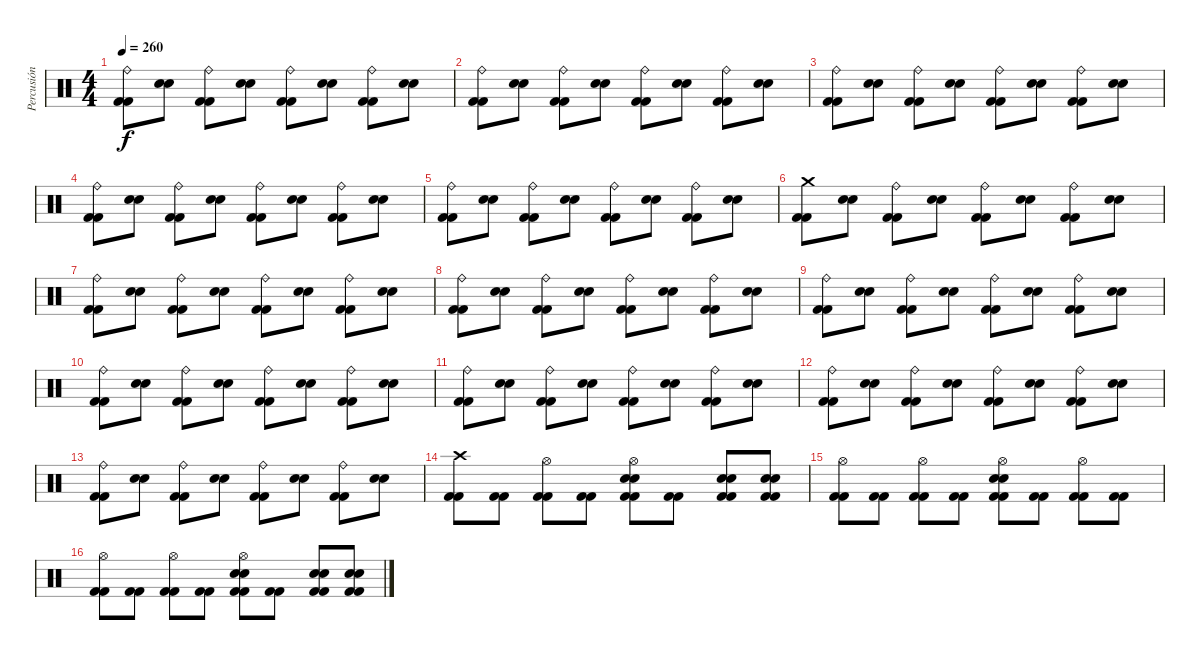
\track ("Percusión" "Percusión") {instrument percussion}
\staff {score}
\articulation defaults
\ts (4 4)
\tempo 260
\clef neutral
\ks c
("Kick (hit) 2" "Kick (hit) 2" "Ride (bell)").8{dy f} ("Electric Snare (hit)" "Electric Snare (hit)").8 ("Kick (hit) 2" "Kick (hit) 2" "Ride (bell)").8 ("Electric Snare (hit)" "Electric Snare (hit)").8 ("Kick (hit) 2" "Kick (hit) 2" "Ride (bell)").8 ("Electric Snare (hit)" "Electric Snare (hit)").8 ("Kick (hit) 2" "Kick (hit) 2" "Ride (bell)").8 ("Electric Snare (hit)" "Electric Snare (hit)").8 |
("Kick (hit) 2" "Kick (hit) 2" "Ride (bell)").8 ("Electric Snare (hit)" "Electric Snare (hit)").8 ("Kick (hit) 2" "Kick (hit) 2" "Ride (bell)").8 ("Electric Snare (hit)" "Electric Snare (hit)").8 ("Kick (hit) 2" "Kick (hit) 2" "Ride (bell)").8 ("Electric Snare (hit)" "Electric Snare (hit)").8 ("Kick (hit) 2" "Kick (hit) 2" "Ride (bell)").8 ("Electric Snare (hit)" "Electric Snare (hit)").8 |
("Kick (hit) 2" "Kick (hit) 2" "Ride (bell)").8 ("Electric Snare (hit)" "Electric Snare (hit)").8 ("Kick (hit) 2" "Kick (hit) 2" "Ride (bell)").8 ("Electric Snare (hit)" "Electric Snare (hit)").8 ("Kick (hit) 2" "Kick (hit) 2" "Ride (bell)").8 ("Electric Snare (hit)" "Electric Snare (hit)").8 ("Kick (hit) 2" "Kick (hit) 2" "Ride (bell)").8 ("Electric Snare (hit)" "Electric Snare (hit)").8 |
("Kick (hit) 2" "Kick (hit) 2" "Ride (bell)").8 ("Electric Snare (hit)" "Electric Snare (hit)").8 ("Kick (hit) 2" "Kick (hit) 2" "Ride (bell)").8 ("Electric Snare (hit)" "Electric Snare (hit)").8 ("Kick (hit) 2" "Kick (hit) 2" "Ride (bell)").8 ("Electric Snare (hit)" "Electric Snare (hit)").8 ("Kick (hit) 2" "Kick (hit) 2" "Ride (bell)").8 ("Electric Snare (hit)" "Electric Snare (hit)").8 |
("Kick (hit) 2" "Kick (hit) 2" "Ride (bell)").8 ("Electric Snare (hit)" "Electric Snare (hit)").8 ("Kick (hit) 2" "Kick (hit) 2" "Ride (bell)").8 ("Electric Snare (hit)" "Electric Snare (hit)").8 ("Kick (hit) 2" "Kick (hit) 2" "Ride (bell)").8 ("Electric Snare (hit)" "Electric Snare (hit)").8 ("Kick (hit) 2" "Kick (hit) 2" "Ride (bell)").8 ("Electric Snare (hit)" "Electric Snare (hit)").8 |
("Kick (hit) 2" "Kick (hit) 2" "Crash medium (hit)").8 ("Electric Snare (hit)" "Electric Snare (hit)").8 ("Kick (hit) 2" "Kick (hit) 2" "Ride (bell)").8 ("Electric Snare (hit)" "Electric Snare (hit)").8 ("Kick (hit) 2" "Kick (hit) 2" "Ride (bell)").8 ("Electric Snare (hit)" "Electric Snare (hit)").8 ("Kick (hit) 2" "Kick (hit) 2" "Ride (bell)").8 ("Electric Snare (hit)" "Electric Snare (hit)").8 |
("Kick (hit) 2" "Kick (hit) 2" "Ride (bell)").8 ("Electric Snare (hit)" "Electric Snare (hit)").8 ("Kick (hit) 2" "Kick (hit) 2" "Ride (bell)").8 ("Electric Snare (hit)" "Electric Snare (hit)").8 ("Kick (hit) 2" "Kick (hit) 2" "Ride (bell)").8 ("Electric Snare (hit)" "Electric Snare (hit)").8 ("Kick (hit) 2" "Kick (hit) 2" "Ride (bell)").8 ("Electric Snare (hit)" "Electric Snare (hit)").8 |
("Kick (hit) 2" "Kick (hit) 2" "Ride (bell)").8 ("Electric Snare (hit)" "Electric Snare (hit)").8 ("Kick (hit) 2" "Kick (hit) 2" "Ride (bell)").8 ("Electric Snare (hit)" "Electric Snare (hit)").8 ("Kick (hit) 2" "Kick (hit) 2" "Ride (bell)").8 ("Electric Snare (hit)" "Electric Snare (hit)").8 ("Kick (hit) 2" "Kick (hit) 2" "Ride (bell)").8 ("Electric Snare (hit)" "Electric Snare (hit)").8 |
("Kick (hit) 2" "Kick (hit) 2" "Ride (bell)").8 ("Electric Snare (hit)" "Electric Snare (hit)").8 ("Kick (hit) 2" "Kick (hit) 2" "Ride (bell)").8 ("Electric Snare (hit)" "Electric Snare (hit)").8 ("Kick (hit) 2" "Kick (hit) 2" "Ride (bell)").8 ("Electric Snare (hit)" "Electric Snare (hit)").8 ("Kick (hit) 2" "Kick (hit) 2" "Ride (bell)").8 ("Electric Snare (hit)" "Electric Snare (hit)").8 |
("Kick (hit) 2" "Kick (hit) 2" "Ride (bell)").8 ("Electric Snare (hit)" "Electric Snare (hit)").8 ("Kick (hit) 2" "Kick (hit) 2" "Ride (bell)").8 ("Electric Snare (hit)" "Electric Snare (hit)").8 ("Kick (hit) 2" "Kick (hit) 2" "Ride (bell)").8 ("Electric Snare (hit)" "Electric Snare (hit)").8 ("Kick (hit) 2" "Kick (hit) 2" "Ride (bell)").8 ("Electric Snare (hit)" "Electric Snare (hit)").8 |
("Kick (hit) 2" "Kick (hit) 2" "Ride (bell)").8 ("Electric Snare (hit)" "Electric Snare (hit)").8 ("Kick (hit) 2" "Kick (hit) 2" "Ride (bell)").8 ("Electric Snare (hit)" "Electric Snare (hit)").8 ("Kick (hit) 2" "Kick (hit) 2" "Ride (bell)").8 ("Electric Snare (hit)" "Electric Snare (hit)").8 ("Kick (hit) 2" "Kick (hit) 2" "Ride (bell)").8 ("Electric Snare (hit)" "Electric Snare (hit)").8 |
("Kick (hit) 2" "Kick (hit) 2" "Ride (bell)").8 ("Electric Snare (hit)" "Electric Snare (hit)").8 ("Kick (hit) 2" "Kick (hit) 2" "Ride (bell)").8 ("Electric Snare (hit)" "Electric Snare (hit)").8 ("Kick (hit) 2" "Kick (hit) 2" "Ride (bell)").8 ("Electric Snare (hit)" "Electric Snare (hit)").8 ("Kick (hit) 2" "Kick (hit) 2" "Ride (bell)").8 ("Electric Snare (hit)" "Electric Snare (hit)").8 |
("Kick (hit) 2" "Kick (hit) 2" "Ride (bell)").8 ("Electric Snare (hit)" "Electric Snare (hit)").8 ("Kick (hit) 2" "Kick (hit) 2" "Ride (bell)").8 ("Electric Snare (hit)" "Electric Snare (hit)").8 ("Kick (hit) 2" "Kick (hit) 2" "Ride (bell)").8 ("Electric Snare (hit)" "Electric Snare (hit)").8 ("Kick (hit) 2" "Kick (hit) 2" "Ride (bell)").8 ("Electric Snare (hit)" "Electric Snare (hit)").8 |
("Kick (hit) 2" "Kick (hit) 2" "Crash high (hit)").8 ("Kick (hit) 2" "Kick (hit) 2").8 ("Kick (hit) 2" "Kick (hit) 2" "Hi-Hat (open)").8 ("Kick (hit) 2" "Kick (hit) 2").8 ("Kick (hit) 2" "Kick (hit) 2" "Electric Snare (hit)" "Electric Snare (hit)" "Hi-Hat (open)").8 ("Kick (hit) 2" "Kick (hit) 2").8 ("Kick (hit) 2" "Kick (hit) 2" "Electric Snare (hit)" "Electric Snare (hit)").8 ("Kick (hit) 2" "Kick (hit) 2" "Electric Snare (hit)" "Electric Snare (hit)").8 |
("Kick (hit) 2" "Kick (hit) 2" "Hi-Hat (open)").8 ("Kick (hit) 2" "Kick (hit) 2").8 ("Kick (hit) 2" "Kick (hit) 2" "Hi-Hat (open)").8 ("Kick (hit) 2" "Kick (hit) 2").8 ("Kick (hit) 2" "Kick (hit) 2" "Electric Snare (hit)" "Electric Snare (hit)" "Hi-Hat (open)").8 ("Kick (hit) 2" "Kick (hit) 2").8 ("Kick (hit) 2" "Kick (hit) 2" "Hi-Hat (open)").8 ("Kick (hit) 2" "Kick (hit) 2").8 |
("Kick (hit) 2" "Kick (hit) 2" "Hi-Hat (open)").8 ("Kick (hit) 2" "Kick (hit) 2").8 ("Kick (hit) 2" "Kick (hit) 2" "Hi-Hat (open)").8 ("Kick (hit) 2" "Kick (hit) 2").8 ("Kick (hit) 2" "Kick (hit) 2" "Electric Snare (hit)" "Electric Snare (hit)" "Hi-Hat (open)").8 ("Kick (hit) 2" "Kick (hit) 2").8 ("Kick (hit) 2" "Kick (hit) 2" "Electric Snare (hit)" "Electric Snare (hit)").8 ("Kick (hit) 2" "Kick (hit) 2" "Electric Snare (hit)" "Electric Snare (hit)").8
